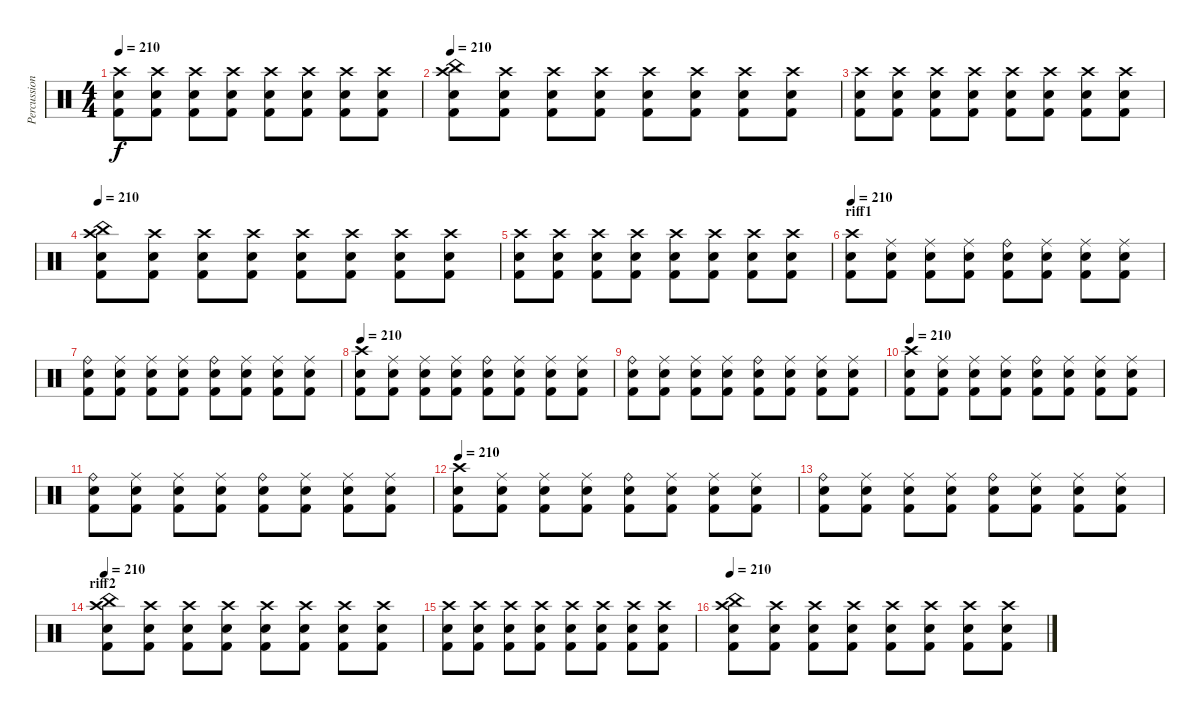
\track ("Percussion" "Percussion") {instrument percussion}
\staff {score}
\articulation defaults
\ts (4 4)
\tempo 210
\clef neutral
\ks c
("Crash high (hit)" "Snare (hit) 2" "Kick (hit) 2").8{dy f} ("Crash high (hit)" "Snare (hit) 2" "Kick (hit) 2").8 ("Crash high (hit)" "Snare (hit) 2" "Kick (hit) 2").8 ("Crash high (hit)" "Snare (hit) 2" "Kick (hit) 2").8 ("Crash high (hit)" "Snare (hit) 2" "Kick (hit) 2").8 ("Crash high (hit)" "Snare (hit) 2" "Kick (hit) 2").8 ("Crash high (hit)" "Snare (hit) 2" "Kick (hit) 2").8 ("Crash high (hit)" "Snare (hit) 2" "Kick (hit) 2").8 |
\tempo 210
("China (hit)" "Crash high (hit)" "Snare (hit) 2" "Kick (hit) 2").8 ("Crash high (hit)" "Snare (hit) 2" "Kick (hit) 2").8 ("Crash high (hit)" "Snare (hit) 2" "Kick (hit) 2").8 ("Crash high (hit)" "Snare (hit) 2" "Kick (hit) 2").8 ("Crash high (hit)" "Snare (hit) 2" "Kick (hit) 2").8 ("Crash high (hit)" "Snare (hit) 2" "Kick (hit) 2").8 ("Crash high (hit)" "Snare (hit) 2" "Kick (hit) 2").8 ("Crash high (hit)" "Snare (hit) 2" "Kick (hit) 2").8 |
("Crash high (hit)" "Snare (hit) 2" "Kick (hit) 2").8 ("Crash high (hit)" "Snare (hit) 2" "Kick (hit) 2").8 ("Crash high (hit)" "Snare (hit) 2" "Kick (hit) 2").8 ("Crash high (hit)" "Snare (hit) 2" "Kick (hit) 2").8 ("Crash high (hit)" "Snare (hit) 2" "Kick (hit) 2").8 ("Crash high (hit)" "Snare (hit) 2" "Kick (hit) 2").8 ("Crash high (hit)" "Snare (hit) 2" "Kick (hit) 2").8 ("Crash high (hit)" "Snare (hit) 2" "Kick (hit) 2").8 |
\tempo 210
("China (hit)" "Crash high (hit)" "Snare (hit) 2" "Kick (hit) 2").8 ("Crash high (hit)" "Snare (hit) 2" "Kick (hit) 2").8 ("Crash high (hit)" "Snare (hit) 2" "Kick (hit) 2").8 ("Crash high (hit)" "Snare (hit) 2" "Kick (hit) 2").8 ("Crash high (hit)" "Snare (hit) 2" "Kick (hit) 2").8 ("Crash high (hit)" "Snare (hit) 2" "Kick (hit) 2").8 ("Crash high (hit)" "Snare (hit) 2" "Kick (hit) 2").8 ("Crash high (hit)" "Snare (hit) 2" "Kick (hit) 2").8 |
("Crash high (hit)" "Snare (hit) 2" "Kick (hit) 2").8 ("Crash high (hit)" "Snare (hit) 2" "Kick (hit) 2").8 ("Crash high (hit)" "Snare (hit) 2" "Kick (hit) 2").8 ("Crash high (hit)" "Snare (hit) 2" "Kick (hit) 2").8 ("Crash high (hit)" "Snare (hit) 2" "Kick (hit) 2").8 ("Crash high (hit)" "Snare (hit) 2" "Kick (hit) 2").8 ("Crash high (hit)" "Snare (hit) 2" "Kick (hit) 2").8 ("Crash high (hit)" "Snare (hit) 2" "Kick (hit) 2").8 |
\section ("" "riff1")
\tempo 210
("Crash high (hit)" "Snare (hit) 2" "Kick (hit) 2").8 ("Ride (middle)" "Snare (hit) 2" "Kick (hit) 2").8 ("Ride (middle)" "Snare (hit) 2" "Kick (hit) 2").8 ("Ride (middle)" "Snare (hit) 2" "Kick (hit) 2").8 ("Ride (bell)" "Snare (hit) 2" "Kick (hit) 2").8 ("Ride (middle)" "Snare (hit) 2" "Kick (hit) 2").8 ("Ride (middle)" "Snare (hit) 2" "Kick (hit) 2").8 ("Ride (middle)" "Snare (hit) 2" "Kick (hit) 2").8 |
("Ride (bell)" "Snare (hit) 2" "Kick (hit) 2").8 ("Ride (middle)" "Snare (hit) 2" "Kick (hit) 2").8 ("Ride (middle)" "Snare (hit) 2" "Kick (hit) 2").8 ("Ride (middle)" "Snare (hit) 2" "Kick (hit) 2").8 ("Ride (bell)" "Snare (hit) 2" "Kick (hit) 2").8 ("Ride (middle)" "Snare (hit) 2" "Kick (hit) 2").8 ("Ride (middle)" "Snare (hit) 2" "Kick (hit) 2").8 ("Ride (middle)" "Snare (hit) 2" "Kick (hit) 2").8 |
\tempo 210
("Crash high (hit)" "Snare (hit) 2" "Kick (hit) 2").8 ("Ride (middle)" "Snare (hit) 2" "Kick (hit) 2").8 ("Ride (middle)" "Snare (hit) 2" "Kick (hit) 2").8 ("Ride (middle)" "Snare (hit) 2" "Kick (hit) 2").8 ("Ride (bell)" "Snare (hit) 2" "Kick (hit) 2").8 ("Ride (middle)" "Snare (hit) 2" "Kick (hit) 2").8 ("Ride (middle)" "Snare (hit) 2" "Kick (hit) 2").8 ("Ride (middle)" "Snare (hit) 2" "Kick (hit) 2").8 |
("Ride (bell)" "Snare (hit) 2" "Kick (hit) 2").8 ("Ride (middle)" "Snare (hit) 2" "Kick (hit) 2").8 ("Ride (middle)" "Snare (hit) 2" "Kick (hit) 2").8 ("Ride (middle)" "Snare (hit) 2" "Kick (hit) 2").8 ("Ride (bell)" "Snare (hit) 2" "Kick (hit) 2").8 ("Ride (middle)" "Snare (hit) 2" "Kick (hit) 2").8 ("Ride (middle)" "Snare (hit) 2" "Kick (hit) 2").8 ("Ride (middle)" "Snare (hit) 2" "Kick (hit) 2").8 |
\tempo 210
("Crash high (hit)" "Snare (hit) 2" "Kick (hit) 2").8 ("Ride (middle)" "Snare (hit) 2" "Kick (hit) 2").8 ("Ride (middle)" "Snare (hit) 2" "Kick (hit) 2").8 ("Ride (middle)" "Snare (hit) 2" "Kick (hit) 2").8 ("Ride (bell)" "Snare (hit) 2" "Kick (hit) 2").8 ("Ride (middle)" "Snare (hit) 2" "Kick (hit) 2").8 ("Ride (middle)" "Snare (hit) 2" "Kick (hit) 2").8 ("Ride (middle)" "Snare (hit) 2" "Kick (hit) 2").8 |
("Ride (bell)" "Snare (hit) 2" "Kick (hit) 2").8 ("Ride (middle)" "Snare (hit) 2" "Kick (hit) 2").8 ("Ride (middle)" "Snare (hit) 2" "Kick (hit) 2").8 ("Ride (middle)" "Snare (hit) 2" "Kick (hit) 2").8 ("Ride (bell)" "Snare (hit) 2" "Kick (hit) 2").8 ("Ride (middle)" "Snare (hit) 2" "Kick (hit) 2").8 ("Ride (middle)" "Snare (hit) 2" "Kick (hit) 2").8 ("Ride (middle)" "Snare (hit) 2" "Kick (hit) 2").8 |
\tempo 210
("Crash high (hit)" "Snare (hit) 2" "Kick (hit) 2").8 ("Ride (middle)" "Snare (hit) 2" "Kick (hit) 2").8 ("Ride (middle)" "Snare (hit) 2" "Kick (hit) 2").8 ("Ride (middle)" "Snare (hit) 2" "Kick (hit) 2").8 ("Ride (bell)" "Snare (hit) 2" "Kick (hit) 2").8 ("Ride (middle)" "Snare (hit) 2" "Kick (hit) 2").8 ("Ride (middle)" "Snare (hit) 2" "Kick (hit) 2").8 ("Ride (middle)" "Snare (hit) 2" "Kick (hit) 2").8 |
("Ride (bell)" "Snare (hit) 2" "Kick (hit) 2").8 ("Ride (middle)" "Snare (hit) 2" "Kick (hit) 2").8 ("Ride (middle)" "Snare (hit) 2" "Kick (hit) 2").8 ("Ride (middle)" "Snare (hit) 2" "Kick (hit) 2").8 ("Ride (bell)" "Snare (hit) 2" "Kick (hit) 2").8 ("Ride (middle)" "Snare (hit) 2" "Kick (hit) 2").8 ("Ride (middle)" "Snare (hit) 2" "Kick (hit) 2").8 ("Ride (middle)" "Snare (hit) 2" "Kick (hit) 2").8 |
\section ("" "riff2")
\tempo 210
("China (hit)" "Crash high (hit)" "Snare (hit) 2" "Kick (hit) 2").8 ("Crash high (hit)" "Snare (hit) 2" "Kick (hit) 2").8 ("Crash high (hit)" "Snare (hit) 2" "Kick (hit) 2").8 ("Crash high (hit)" "Snare (hit) 2" "Kick (hit) 2").8 ("Crash high (hit)" "Snare (hit) 2" "Kick (hit) 2").8 ("Crash high (hit)" "Snare (hit) 2" "Kick (hit) 2").8 ("Crash high (hit)" "Snare (hit) 2" "Kick (hit) 2").8 ("Crash high (hit)" "Snare (hit) 2" "Kick (hit) 2").8 |
("Crash high (hit)" "Snare (hit) 2" "Kick (hit) 2").8 ("Crash high (hit)" "Snare (hit) 2" "Kick (hit) 2").8 ("Crash high (hit)" "Snare (hit) 2" "Kick (hit) 2").8 ("Crash high (hit)" "Snare (hit) 2" "Kick (hit) 2").8 ("Crash high (hit)" "Snare (hit) 2" "Kick (hit) 2").8 ("Crash high (hit)" "Snare (hit) 2" "Kick (hit) 2").8 ("Crash high (hit)" "Snare (hit) 2" "Kick (hit) 2").8 ("Crash high (hit)" "Snare (hit) 2" "Kick (hit) 2").8 |
\tempo 210
("China (hit)" "Crash high (hit)" "Snare (hit) 2" "Kick (hit) 2").8 ("Crash high (hit)" "Snare (hit) 2" "Kick (hit) 2").8 ("Crash high (hit)" "Snare (hit) 2" "Kick (hit) 2").8 ("Crash high (hit)" "Snare (hit) 2" "Kick (hit) 2").8 ("Crash high (hit)" "Snare (hit) 2" "Kick (hit) 2").8 ("Crash high (hit)" "Snare (hit) 2" "Kick (hit) 2").8 ("Crash high (hit)" "Snare (hit) 2" "Kick (hit) 2").8 ("Crash high (hit)" "Snare (hit) 2" "Kick (hit) 2").8
